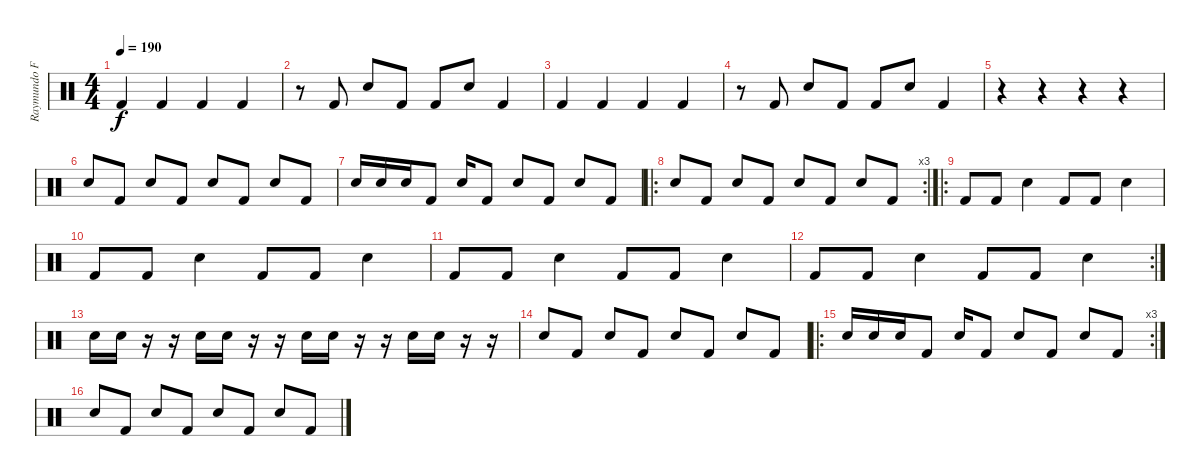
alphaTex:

\track ("Raymundo Fajaro" "Raymundo F") {instrument percussion}
\staff {score}
\articulation defaults
\ts (4 4)
\tempo 190
\clef neutral
\ks c "Kick (hit) 2".4{dy f} "Kick (hit) 2".4 "Kick (hit) 2".4 "Kick (hit) 2".4
|
r.8 "Kick (hit) 2".8 "Electric Snare (hit)".8 "Kick (hit) 2".8 "Kick (hit) 2".8 "Electric Snare (hit)".8 "Kick (hit) 2".4 |
"Kick (hit) 2".4 "Kick (hit) 2".4 "Kick (hit) 2".4 "Kick (hit) 2".4 |
r.8 "Kick (hit) 2".8 "Electric Snare (hit)".8 "Kick (hit) 2".8 "Kick (hit) 2".8 "Electric Snare (hit)".8 "Kick (hit) 2".4 |
r.4 r.4 r.4 r.4 |
"Electric Snare (hit)".8 "Kick (hit) 2".8 "Electric Snare (hit)".8 "Kick (hit) 2".8 "Electric Snare (hit)".8 "Kick (hit) 2".8 "Electric Snare (hit)".8 "Kick (hit) 2".8 |
"Electric Snare (hit)".16 "Electric Snare (hit)".16 "Electric Snare (hit)".16 "Kick (hit) 2".8 "Electric Snare (hit)".16 "Kick (hit) 2".8 "Electric Snare (hit)".8 "Kick (hit) 2".8 "Electric Snare (hit)".8 "Kick (hit) 2".8 |
\ro
\rc 3 "Electric Snare (hit)".8 "Kick (hit) 2".8 "Electric Snare (hit)".8 "Kick (hit) 2".8 "Electric Snare (hit)".8 "Kick (hit) 2".8 "Electric Snare (hit)".8 "Kick (hit) 2".8
|
\ro "Kick (hit) 2".8 "Kick (hit) 2".8 "Electric Snare (hit)".4 "Kick (hit) 2".8 "Kick (hit) 2".8 "Electric Snare (hit)".4
|
"Kick (hit) 2".8 "Kick (hit) 2".8 "Electric Snare (hit)".4 "Kick (hit) 2".8 "Kick (hit) 2".8 "Electric Snare (hit)".4 |
"Kick (hit) 2".8 "Kick (hit) 2".8 "Electric Snare (hit)".4 "Kick (hit) 2".8 "Kick (hit) 2".8 "Electric Snare (hit)".4 |
\rc 2 "Kick (hit) 2".8 "Kick (hit) 2".8 "Electric Snare (hit)".4 "Kick (hit) 2".8 "Kick (hit) 2".8 "Electric Snare (hit)".4
|
"Electric Snare (hit)".16 "Electric Snare (hit)".16 r.16 r.16 "Electric Snare (hit)".16 "Electric Snare (hit)".16 r.16 r.16 "Electric Snare (hit)".16 "Electric Snare (hit)".16 r.16 r.16 "Electric Snare (hit)".16 "Electric Snare (hit)".16 r.16 r.16 |
"Electric Snare (hit)".8 "Kick (hit) 2".8 "Electric Snare (hit)".8 "Kick (hit) 2".8 "Electric Snare (hit)".8 "Kick (hit) 2".8 "Electric Snare (hit)".8 "Kick (hit) 2".8 |
\ro
\rc 3 "Electric Snare (hit)".16 "Electric Snare (hit)".16 "Electric Snare (hit)".16 "Kick (hit) 2".8 "Electric Snare (hit)".16 "Kick (hit) 2".8 "Electric Snare (hit)".8 "Kick (hit) 2".8 "Electric Snare (hit)".8 "Kick (hit) 2".8
|
"Electric Snare (hit)".8 "Kick (hit) 2".8 "Electric Snare (hit)".8 "Kick (hit) 2".8 "Electric Snare (hit)".8 "Kick (hit) 2".8 "Electric Snare (hit)".8 "Kick (hit) 2".8
